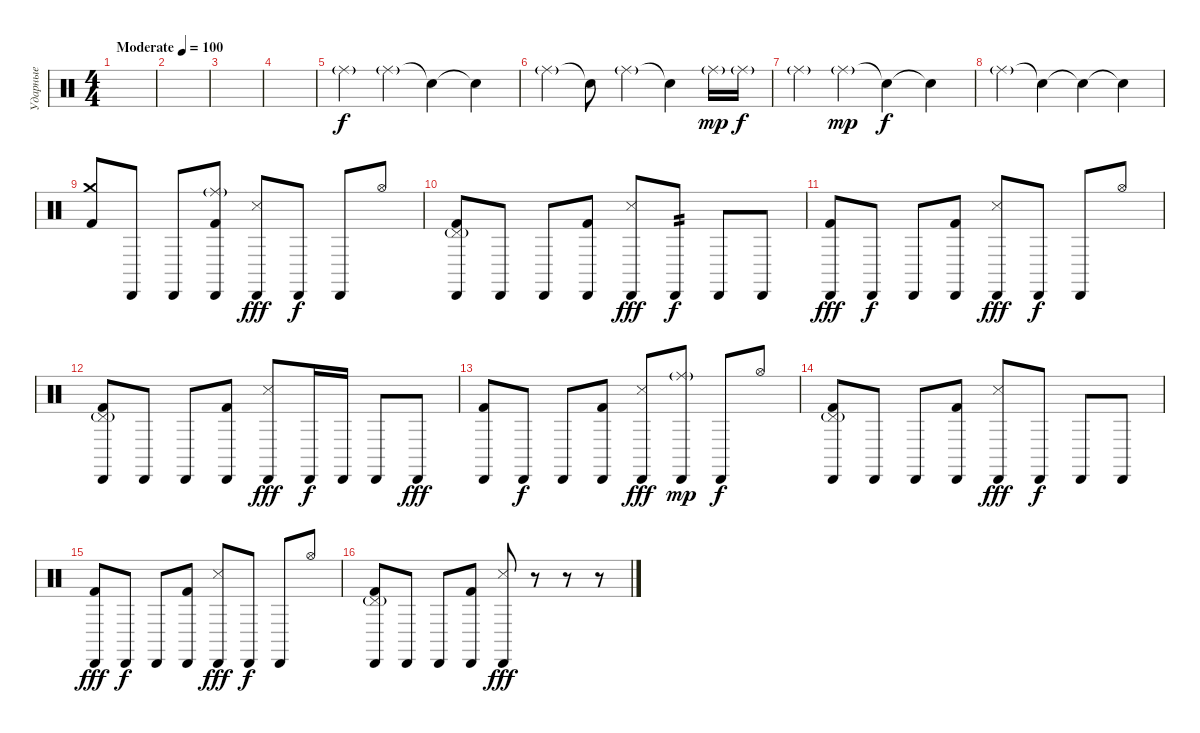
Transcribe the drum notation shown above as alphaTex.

\track ("Ударные" "Ударные") {instrument percussion}
\staff {score}
\articulation defaults
\ts (4 4)
\tempo (100 "Moderate")
\clef neutral
\ks c
|
|
|
|
"Ride (middle)"{g}.4 "Ride (middle)"{g}.4 "Snare (hit)"{t}.4 "Snare (hit)"{t}.4 |
"Ride (middle)"{g}.4 "Snare (hit)"{t}.8 "Ride (middle)"{g}.4 "Snare (hit)"{t}.4 "Ride (middle)"{g}.16{dy mp} "Ride (middle)"{g}.16{dy f} |
"Ride (middle)"{g}.4 "Ride (middle)"{g}.4{dy mp} "Snare (hit)"{t}.4{dy f} "Snare (hit)"{t}.4 |
"Ride (middle)"{g}.4 "Snare (hit)"{t}.4 "Snare (hit)"{t}.4 "Snare (hit)"{t}.4 |
("Crash medium (hit)" "Kick (hit) 2").8 "Cabasa (hit)".8 "Cabasa (hit)".8 ("Ride (middle)"{g} "Cabasa (hit)" "Kick (hit) 2").8 ("Cabasa (hit)" "Metronome (hit)").8{dy fff} "Cabasa (hit)".8{dy f} "Cabasa (hit)".8 "Hi-Hat (open)".8 |
("Pedal Hi-Hat (hit)"{g} "Cabasa (hit)" "Kick (hit) 2").8 "Cabasa (hit)".8 "Cabasa (hit)".8 ("Cabasa (hit)" "Kick (hit) 2").8 ("Cabasa (hit)" "Metronome (hit)").8{dy fff} "Cabasa (hit)".8{tp 2 dy f} "Cabasa (hit)".8 "Cabasa (hit)".8 |
("Cabasa (hit)" "Kick (hit) 2").8{dy fff} "Cabasa (hit)".8{dy f} "Cabasa (hit)".8 ("Cabasa (hit)" "Kick (hit) 2").8 ("Cabasa (hit)" "Metronome (hit)").8{dy fff} "Cabasa (hit)".8{dy f} "Cabasa (hit)".8 "Hi-Hat (open)".8 |
("Pedal Hi-Hat (hit)"{g} "Cabasa (hit)" "Kick (hit) 2").8 "Cabasa (hit)".8 "Cabasa (hit)".8 ("Cabasa (hit)" "Kick (hit) 2").8 ("Cabasa (hit)" "Metronome (hit)").8{dy fff} "Cabasa (hit)".16{dy f} "Cabasa (hit)".16 "Cabasa (hit)".8 "Cabasa (hit)".8{dy fff} |
("Cabasa (hit)" "Kick (hit) 2").8 "Cabasa (hit)".8{dy f} "Cabasa (hit)".8 ("Cabasa (hit)" "Kick (hit) 2").8 ("Cabasa (hit)" "Metronome (hit)").8{dy fff} ("Cabasa (hit)" "Ride (middle)"{g}).8{dy mp} "Cabasa (hit)".8{dy f} "Hi-Hat (open)".8 |
("Pedal Hi-Hat (hit)"{g} "Cabasa (hit)" "Kick (hit) 2").8 "Cabasa (hit)".8 "Cabasa (hit)".8 ("Cabasa (hit)" "Kick (hit) 2").8 ("Cabasa (hit)" "Metronome (hit)").8{dy fff} "Cabasa (hit)".8{dy f} "Cabasa (hit)".8 "Cabasa (hit)".8 |
("Cabasa (hit)" "Kick (hit) 2").8{dy fff} "Cabasa (hit)".8{dy f} "Cabasa (hit)".8 ("Cabasa (hit)" "Kick (hit) 2").8 ("Cabasa (hit)" "Metronome (hit)").8{dy fff} "Cabasa (hit)".8{dy f} "Cabasa (hit)".8 "Hi-Hat (open)".8 |
("Pedal Hi-Hat (hit)"{g} "Cabasa (hit)" "Kick (hit) 2").8 "Cabasa (hit)".8 "Cabasa (hit)".8 ("Cabasa (hit)" "Kick (hit) 2").8 ("Cabasa (hit)" "Metronome (hit)").8{dy fff} r.8 r.8 r.8
